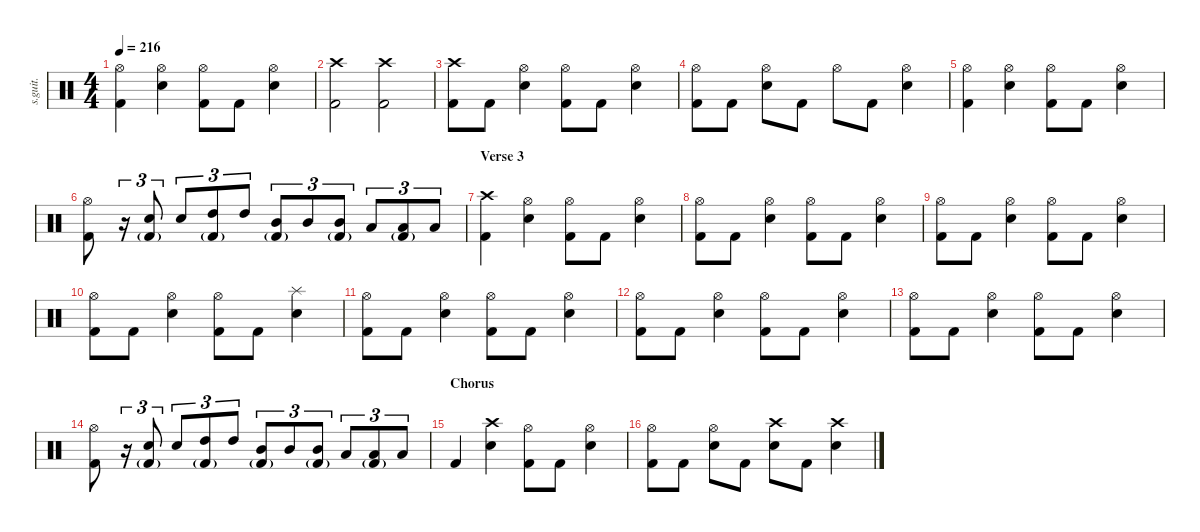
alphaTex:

\defaultSystemsLayout 4
\hideDynamics
\bracketExtendMode nobrackets
\track ("Jesus Bonehead | Drums" "s.guit.") {instrument percussion}
\staff {score}
\articulation defaults
\ts (4 4)
\tempo 216
\clef neutral
\ks c
("Hi-Hat (open)" "Kick (hit) 2").4{dy f} ("Hi-Hat (open)" "Snare (hit) 2").4 ("Hi-Hat (open)" "Kick (hit) 2").8 "Kick (hit) 2".8 ("Hi-Hat (open)" "Snare (hit) 2").4 |
("Crash high (hit)" "Kick (hit) 2").2 ("Crash high (hit)" "Kick (hit) 2").2 |
("Crash high (hit)" "Kick (hit) 2").8 "Kick (hit) 2".8 ("Hi-Hat (open)" "Snare (hit) 2").4 ("Hi-Hat (open)" "Kick (hit) 2").8 "Kick (hit) 2".8 ("Hi-Hat (open)" "Snare (hit) 2").4 |
("Hi-Hat (open)" "Kick (hit) 2").8 "Kick (hit) 2".8 ("Hi-Hat (open)" "Snare (hit) 2").8 "Kick (hit) 2".8 "Hi-Hat (open)".8 "Kick (hit) 2".8 ("Hi-Hat (open)" "Snare (hit) 2").4 |
("Hi-Hat (open)" "Kick (hit) 2").4 ("Hi-Hat (open)" "Snare (hit) 2").4 ("Hi-Hat (open)" "Kick (hit) 2").8 "Kick (hit) 2".8 ("Hi-Hat (open)" "Snare (hit) 2").4 |
("Hi-Hat (open)" "Kick (hit) 2").8 r.16{tu (3 2)} ("Snare (hit) 2" "Kick (hit) 2"{g}).8{tu (3 2)} "Snare (hit) 2".8{tu (3 2)} ("High Tom (hit)" "Kick (hit) 2"{g}).8{tu (3 2)} "High Tom (hit)".8{tu (3 2)} ("Mid Tom (hit)" "Kick (hit) 2"{g}).8{tu (3 2)} "Mid Tom (hit)".8{tu (3 2)} ("Mid Tom (hit)" "Kick (hit) 2"{g}).8{tu (3 2)} "Low Floor Tom (hit)".8{tu (3 2)} ("Low Floor Tom (hit)" "Kick (hit) 2"{g}).8{tu (3 2)} "Low Floor Tom (hit)".8{tu (3 2)} |
\section ("" "Verse 3")
("Crash high (hit)" "Kick (hit) 2").4 ("Hi-Hat (open)" "Snare (hit) 2").4 ("Hi-Hat (open)" "Kick (hit) 2").8 "Kick (hit) 2".8 ("Hi-Hat (open)" "Snare (hit) 2").4 |
("Hi-Hat (open)" "Kick (hit) 2").8 "Kick (hit) 2".8 ("Hi-Hat (open)" "Snare (hit) 2").4 ("Hi-Hat (open)" "Kick (hit) 2").8 "Kick (hit) 2".8 ("Hi-Hat (open)" "Snare (hit) 2").4 |
("Hi-Hat (open)" "Kick (hit) 2").8 "Kick (hit) 2".8 ("Hi-Hat (open)" "Snare (hit) 2").4 ("Hi-Hat (open)" "Kick (hit) 2").8 "Kick (hit) 2".8 ("Hi-Hat (open)" "Snare (hit) 2").4 |
("Hi-Hat (open)" "Kick (hit) 2").8 "Kick (hit) 2".8 ("Hi-Hat (open)" "Snare (hit) 2").4 ("Hi-Hat (open)" "Kick (hit) 2").8 "Kick (hit) 2".8 ("Splash (hit)" "Snare (hit) 2").4 |
("Hi-Hat (open)" "Kick (hit) 2").8 "Kick (hit) 2".8 ("Hi-Hat (open)" "Snare (hit) 2").4 ("Hi-Hat (open)" "Kick (hit) 2").8 "Kick (hit) 2".8 ("Hi-Hat (open)" "Snare (hit) 2").4 |
("Hi-Hat (open)" "Kick (hit) 2").8 "Kick (hit) 2".8 ("Hi-Hat (open)" "Snare (hit) 2").4 ("Hi-Hat (open)" "Kick (hit) 2").8 "Kick (hit) 2".8 ("Hi-Hat (open)" "Snare (hit) 2").4 |
("Hi-Hat (open)" "Kick (hit) 2").8 "Kick (hit) 2".8 ("Hi-Hat (open)" "Snare (hit) 2").4 ("Hi-Hat (open)" "Kick (hit) 2").8 "Kick (hit) 2".8 ("Hi-Hat (open)" "Snare (hit) 2").4 |
("Hi-Hat (open)" "Kick (hit) 2").8 r.16{tu (3 2)} ("Snare (hit) 2" "Kick (hit) 2"{g}).8{tu (3 2)} "Snare (hit) 2".8{tu (3 2)} ("High Tom (hit)" "Kick (hit) 2"{g}).8{tu (3 2)} "High Tom (hit)".8{tu (3 2)} ("Mid Tom (hit)" "Kick (hit) 2"{g}).8{tu (3 2)} "Mid Tom (hit)".8{tu (3 2)} ("Mid Tom (hit)" "Kick (hit) 2"{g}).8{tu (3 2)} "Low Floor Tom (hit)".8{tu (3 2)} ("Low Floor Tom (hit)" "Kick (hit) 2"{g}).8{tu (3 2)} "Low Floor Tom (hit)".8{tu (3 2)} |
\section ("" "Chorus")
"Kick (hit) 2".4 ("Crash high (hit)" "Snare (hit) 2").4 ("Hi-Hat (open)" "Kick (hit) 2").8 "Kick (hit) 2".8 ("Hi-Hat (open)" "Snare (hit) 2").4 |
("Hi-Hat (open)" "Kick (hit) 2").8 "Kick (hit) 2".8 ("Hi-Hat (open)" "Snare (hit) 2").8 "Kick (hit) 2".8 ("Crash high (hit)" "Snare (hit) 2").8 "Kick (hit) 2".8 ("Crash high (hit)" "Snare (hit) 2").4
